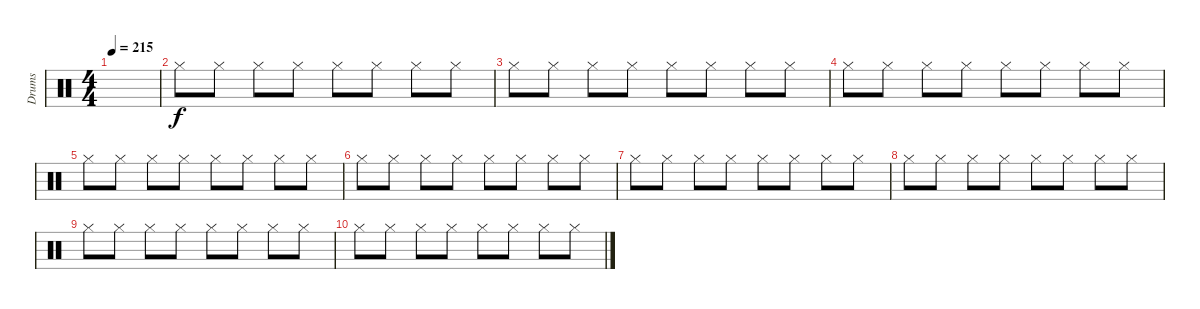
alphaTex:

\track ("Drums" "Drums") {instrument percussion}
\staff {score}
\articulation defaults
\ts (4 4)
\tempo 215
\clef neutral
\ks c
|
"Hi-Hat (closed)".8 "Hi-Hat (closed)".8 "Hi-Hat (closed)".8 "Hi-Hat (closed)".8 "Hi-Hat (closed)".8 "Hi-Hat (closed)".8 "Hi-Hat (closed)".8 "Hi-Hat (closed)".8 |
"Hi-Hat (closed)".8 "Hi-Hat (closed)".8 "Hi-Hat (closed)".8 "Hi-Hat (closed)".8 "Hi-Hat (closed)".8 "Hi-Hat (closed)".8 "Hi-Hat (closed)".8 "Hi-Hat (closed)".8 |
"Hi-Hat (closed)".8 "Hi-Hat (closed)".8 "Hi-Hat (closed)".8 "Hi-Hat (closed)".8 "Hi-Hat (closed)".8 "Hi-Hat (closed)".8 "Hi-Hat (closed)".8 "Hi-Hat (closed)".8 |
"Hi-Hat (closed)".8 "Hi-Hat (closed)".8 "Hi-Hat (closed)".8 "Hi-Hat (closed)".8 "Hi-Hat (closed)".8 "Hi-Hat (closed)".8 "Hi-Hat (closed)".8 "Hi-Hat (closed)".8 |
"Hi-Hat (closed)".8 "Hi-Hat (closed)".8 "Hi-Hat (closed)".8 "Hi-Hat (closed)".8 "Hi-Hat (closed)".8 "Hi-Hat (closed)".8 "Hi-Hat (closed)".8 "Hi-Hat (closed)".8 |
"Hi-Hat (closed)".8 "Hi-Hat (closed)".8 "Hi-Hat (closed)".8 "Hi-Hat (closed)".8 "Hi-Hat (closed)".8 "Hi-Hat (closed)".8 "Hi-Hat (closed)".8 "Hi-Hat (closed)".8 |
"Hi-Hat (closed)".8 "Hi-Hat (closed)".8 "Hi-Hat (closed)".8 "Hi-Hat (closed)".8 "Hi-Hat (closed)".8 "Hi-Hat (closed)".8 "Hi-Hat (closed)".8 "Hi-Hat (closed)".8 |
"Hi-Hat (closed)".8 "Hi-Hat (closed)".8 "Hi-Hat (closed)".8 "Hi-Hat (closed)".8 "Hi-Hat (closed)".8 "Hi-Hat (closed)".8 "Hi-Hat (closed)".8 "Hi-Hat (closed)".8 |
"Hi-Hat (closed)".8 "Hi-Hat (closed)".8 "Hi-Hat (closed)".8 "Hi-Hat (closed)".8 "Hi-Hat (closed)".8 "Hi-Hat (closed)".8 "Hi-Hat (closed)".8 "Hi-Hat (closed)".8
